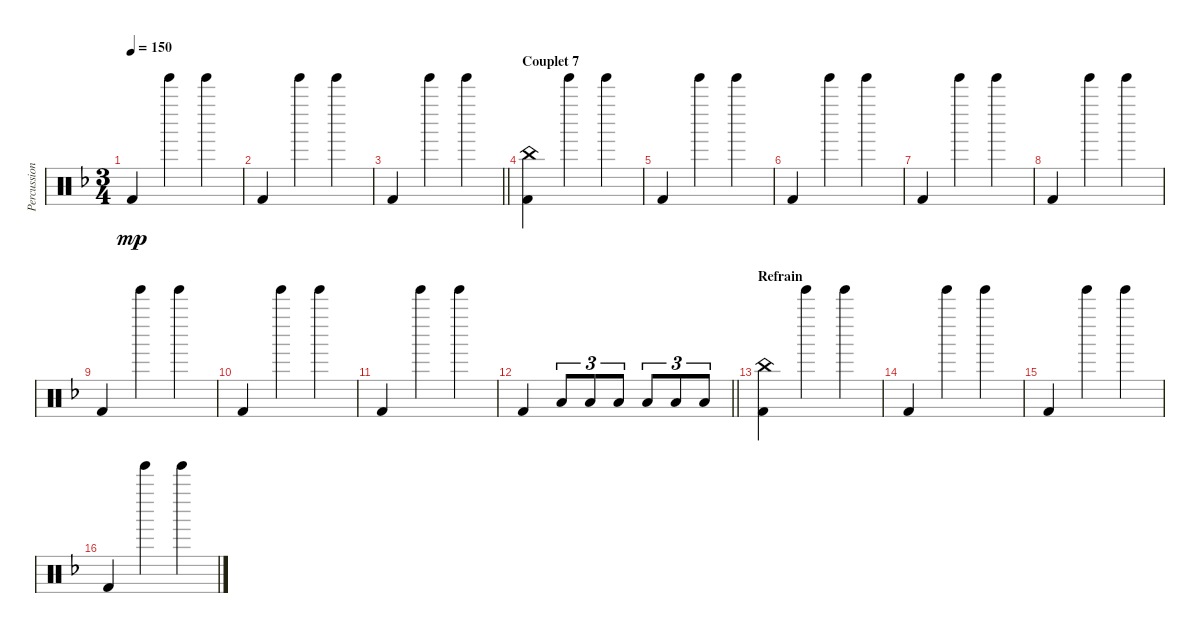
\track ("Percussions" "Percussion") {instrument percussion}
\staff {score}
\articulation defaults
\ts (3 4)
\tempo 150
\clef neutral
\ks f "Kick (hit) 2".4{dy mp} "Tinkle Bell (hit)".4 "Tinkle Bell (hit)".4
|
"Kick (hit) 2".4 "Tinkle Bell (hit)".4 "Tinkle Bell (hit)".4 |
\barLineRight lightlight "Kick (hit) 2".4 "Tinkle Bell (hit)".4 "Tinkle Bell (hit)".4
|
\section ("" "Couplet 7")
("China (hit)" "Kick (hit) 2").4 "Tinkle Bell (hit)".4 "Tinkle Bell (hit)".4 |
"Kick (hit) 2".4 "Tinkle Bell (hit)".4 "Tinkle Bell (hit)".4 |
"Kick (hit) 2".4 "Tinkle Bell (hit)".4 "Tinkle Bell (hit)".4 |
"Kick (hit) 2".4 "Tinkle Bell (hit)".4 "Tinkle Bell (hit)".4 |
"Kick (hit) 2".4 "Tinkle Bell (hit)".4 "Tinkle Bell (hit)".4 |
"Kick (hit) 2".4 "Tinkle Bell (hit)".4 "Tinkle Bell (hit)".4 |
"Kick (hit) 2".4 "Tinkle Bell (hit)".4 "Tinkle Bell (hit)".4 |
"Kick (hit) 2".4 "Tinkle Bell (hit)".4 "Tinkle Bell (hit)".4 |
\barLineRight lightlight "Kick (hit) 2".4 "Low Tom (hit)".8{tu (3 2)} "Low Tom (hit)".8{tu (3 2)} "Low Tom (hit)".8{tu (3 2)} "Low Tom (hit)".8{tu (3 2)} "Low Tom (hit)".8{tu (3 2)} "Low Tom (hit)".8{tu (3 2)}
|
\section ("" "Refrain")
("China (hit)" "Kick (hit) 2").4 "Tinkle Bell (hit)".4 "Tinkle Bell (hit)".4 |
"Kick (hit) 2".4 "Tinkle Bell (hit)".4 "Tinkle Bell (hit)".4 |
"Kick (hit) 2".4 "Tinkle Bell (hit)".4 "Tinkle Bell (hit)".4 |
"Kick (hit) 2".4 "Tinkle Bell (hit)".4 "Tinkle Bell (hit)".4
